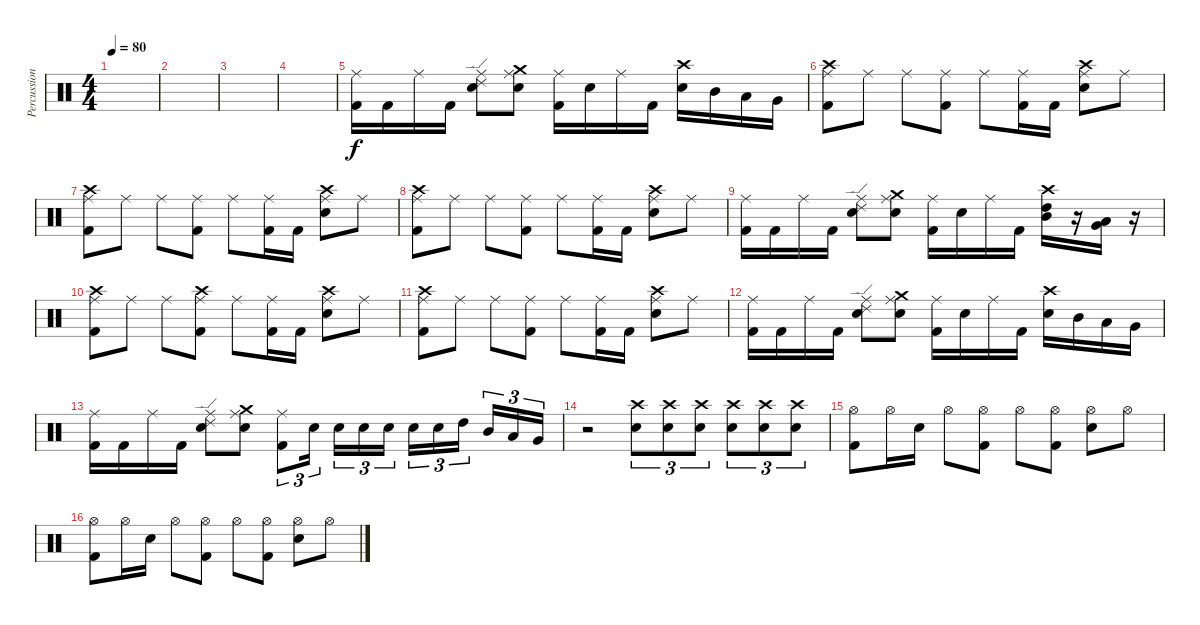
\track ("Percussion" "Percussion") {instrument percussion}
\staff {score}
\articulation defaults
\ts (4 4)
\tempo 80
\clef neutral
\ks c
|
|
|
|
("Ride (middle)" "Kick (hit) 2").16 "Kick (hit) 2".16 "Ride (middle)".16 "Kick (hit) 2".16 ("Ride (edge) 2" "Ride (middle)" "Snare (hit) 2").8 ("Crash medium (hit)" "Ride (middle)" "Snare (hit) 2").8 ("Ride (middle)" "Kick (hit) 2").16 "Snare (hit) 2".16 "Ride (middle)".16 "Kick (hit) 2".16 ("Crash high (hit)" "Snare (hit) 2").16 "Mid Tom (hit)".16 "Low Tom (hit)".16 "Very Low Tom (hit)".16 |
("Crash high (hit)" "Ride (middle)" "Kick (hit) 2").8 "Ride (middle)".8 "Ride (middle)".8 ("Ride (middle)" "Kick (hit) 2").8 "Ride (middle)".8 ("Ride (middle)" "Kick (hit) 2").16 "Kick (hit) 2".16 ("Crash high (hit)" "Ride (middle)" "Snare (hit) 2").8 "Ride (middle)".8 |
("Crash high (hit)" "Ride (middle)" "Kick (hit) 2").8 "Ride (middle)".8 "Ride (middle)".8 ("Ride (middle)" "Kick (hit) 2").8 "Ride (middle)".8 ("Ride (middle)" "Kick (hit) 2").16 "Kick (hit) 2".16 ("Crash high (hit)" "Ride (middle)" "Snare (hit) 2").8 "Ride (middle)".8 |
("Crash high (hit)" "Ride (middle)" "Kick (hit) 2").8 "Ride (middle)".8 "Ride (middle)".8 ("Ride (middle)" "Kick (hit) 2").8 "Ride (middle)".8 ("Ride (middle)" "Kick (hit) 2").16 "Kick (hit) 2".16 ("Crash high (hit)" "Ride (middle)" "Snare (hit) 2").8 "Ride (middle)".8 |
("Ride (middle)" "Kick (hit) 2").16 "Kick (hit) 2".16 "Ride (middle)".16 "Kick (hit) 2".16 ("Ride (edge) 2" "Ride (middle)" "Snare (hit) 2").8 ("Crash medium (hit)" "Ride (middle)" "Snare (hit) 2").8 ("Ride (middle)" "Kick (hit) 2").16 "Snare (hit) 2".16 "Ride (middle)".16 "Kick (hit) 2".16 ("Crash high (hit)" "High Tom (hit)" "Mid Tom (hit)").16 r.16 ("Low Tom (hit)" "Very Low Tom (hit)").16 r.16 |
("Crash high (hit)" "Ride (middle)" "Kick (hit) 2").8 "Ride (middle)".8 "Ride (middle)".8 ("Crash high (hit)" "Ride (middle)" "Kick (hit) 2").8 "Ride (middle)".8 ("Ride (middle)" "Kick (hit) 2").16 "Kick (hit) 2".16 ("Crash high (hit)" "Ride (middle)" "Snare (hit) 2").8 "Ride (middle)".8 |
("Crash high (hit)" "Ride (middle)" "Kick (hit) 2").8 "Ride (middle)".8 "Ride (middle)".8 ("Ride (middle)" "Kick (hit) 2").8 "Ride (middle)".8 ("Ride (middle)" "Kick (hit) 2").16 "Kick (hit) 2".16 ("Crash high (hit)" "Ride (middle)" "Snare (hit) 2").8 "Ride (middle)".8 |
("Ride (middle)" "Kick (hit) 2").16 "Kick (hit) 2".16 "Ride (middle)".16 "Kick (hit) 2".16 ("Ride (edge) 2" "Ride (middle)" "Snare (hit) 2").8 ("Crash medium (hit)" "Ride (middle)" "Snare (hit) 2").8 ("Ride (middle)" "Kick (hit) 2").16 "Snare (hit) 2".16 "Ride (middle)".16 "Kick (hit) 2".16 ("Crash high (hit)" "Snare (hit) 2").16 "Mid Tom (hit)".16 "Low Tom (hit)".16 "Very Low Tom (hit)".16 |
("Ride (middle)" "Kick (hit) 2").16 "Kick (hit) 2".16 "Ride (middle)".16 "Kick (hit) 2".16 ("Ride (edge) 2" "Ride (middle)" "Snare (hit) 2").8 ("Crash medium (hit)" "Ride (middle)" "Snare (hit) 2").8 ("Ride (middle)" "Kick (hit) 2").8{tu (3 2)} "Snare (hit) 2".16{tu (3 2) beam splitsecondary} "Snare (hit) 2".16{tu (3 2)} "Snare (hit) 2".16{tu (3 2)} "Snare (hit) 2".16{tu (3 2)} "Snare (hit) 2".16{tu (3 2)} "Snare (hit) 2".16{tu (3 2)} "High Tom (hit)".16{tu (3 2) beam splitsecondary} "Mid Tom (hit)".16{tu (3 2)} "Low Tom (hit)".16{tu (3 2)} "Very Low Tom (hit)".16{tu (3 2)} |
r.2 ("Crash high (hit)" "Snare (hit) 2").8{tu (3 2)} ("Crash high (hit)" "Snare (hit) 2").8{tu (3 2)} ("Crash high (hit)" "Snare (hit) 2").8{tu (3 2)} ("Crash high (hit)" "Snare (hit) 2").8{tu (3 2)} ("Crash high (hit)" "Snare (hit) 2").8{tu (3 2)} ("Crash high (hit)" "Snare (hit) 2").8{tu (3 2)} |
("Hi-Hat (open)" "Kick (hit) 2").8 "Hi-Hat (open)".16 "Snare (hit) 2".16 "Hi-Hat (open)".8 ("Hi-Hat (open)" "Kick (hit) 2").8 "Hi-Hat (open)".8 ("Hi-Hat (open)" "Kick (hit) 2").8 ("Hi-Hat (open)" "Snare (hit) 2").8 "Hi-Hat (open)".8 |
("Hi-Hat (open)" "Kick (hit) 2").8 "Hi-Hat (open)".16 "Snare (hit) 2".16 "Hi-Hat (open)".8 ("Hi-Hat (open)" "Kick (hit) 2").8 "Hi-Hat (open)".8 ("Hi-Hat (open)" "Kick (hit) 2").8 ("Hi-Hat (open)" "Snare (hit) 2").8 "Hi-Hat (open)".8
